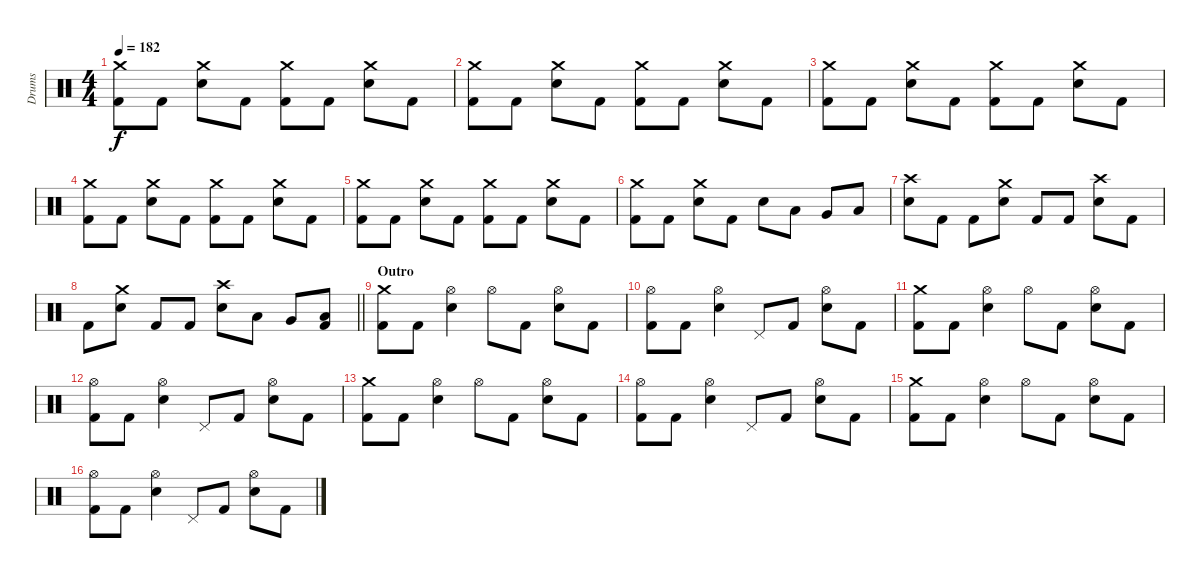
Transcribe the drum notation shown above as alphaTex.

\track ("Drums" "Drums") {instrument percussion}
\staff {score}
\articulation defaults
\ts (4 4)
\tempo 182
\clef neutral
\ks c
("Crash medium (hit)" "Kick (hit) 2").8{dy f} "Kick (hit) 2".8 ("Crash medium (hit)" "Electric Snare (hit)").8 "Kick (hit) 2".8 ("Crash medium (hit)" "Kick (hit) 2").8 "Kick (hit) 2".8 ("Crash medium (hit)" "Electric Snare (hit)").8 "Kick (hit) 2".8 |
("Crash medium (hit)" "Kick (hit) 2").8 "Kick (hit) 2".8 ("Crash medium (hit)" "Electric Snare (hit)").8 "Kick (hit) 2".8 ("Crash medium (hit)" "Kick (hit) 2").8 "Kick (hit) 2".8 ("Crash medium (hit)" "Electric Snare (hit)").8 "Kick (hit) 2".8 |
("Crash medium (hit)" "Kick (hit) 2").8 "Kick (hit) 2".8 ("Crash medium (hit)" "Electric Snare (hit)").8 "Kick (hit) 2".8 ("Crash medium (hit)" "Kick (hit) 2").8 "Kick (hit) 2".8 ("Crash medium (hit)" "Electric Snare (hit)").8 "Kick (hit) 2".8 |
("Crash medium (hit)" "Kick (hit) 2").8 "Kick (hit) 2".8 ("Crash medium (hit)" "Electric Snare (hit)").8 "Kick (hit) 2".8 ("Crash medium (hit)" "Kick (hit) 2").8 "Kick (hit) 2".8 ("Crash medium (hit)" "Electric Snare (hit)").8 "Kick (hit) 2".8 |
("Crash medium (hit)" "Kick (hit) 2").8 "Kick (hit) 2".8 ("Crash medium (hit)" "Electric Snare (hit)").8 "Kick (hit) 2".8 ("Crash medium (hit)" "Kick (hit) 2").8 "Kick (hit) 2".8 ("Crash medium (hit)" "Electric Snare (hit)").8 "Kick (hit) 2".8 |
("Crash medium (hit)" "Kick (hit) 2").8 "Kick (hit) 2".8 ("Crash medium (hit)" "Electric Snare (hit)").8 "Kick (hit) 2".8 "Electric Snare (hit)".8 "Low Tom (hit)".8 "Very Low Tom (hit)".8 "Low Floor Tom (hit)".8 |
("Crash high (hit)" "Electric Snare (hit)").8 "Kick (hit) 2".8 "Kick (hit) 2".8 ("Crash medium (hit)" "Electric Snare (hit)").8 "Kick (hit) 2".8 "Kick (hit) 2".8 ("Crash high (hit)" "Electric Snare (hit)").8 "Kick (hit) 2".8 |
\barLineRight lightlight "Kick (hit) 2".8
("Crash medium (hit)" "Electric Snare (hit)").8 "Kick (hit) 2".8 "Kick (hit) 2".8 ("Crash high (hit)" "Electric Snare (hit)").8 "Low Tom (hit)".8 "Very Low Tom (hit)".8 ("Low Floor Tom (hit)" "Kick (hit) 2").8 |
\section ("" "Outro")
("Crash medium (hit)" "Kick (hit) 2").8 "Kick (hit) 2".8 ("Hi-Hat (open)" "Electric Snare (hit)").4 "Hi-Hat (open)".8 "Kick (hit) 2".8 ("Hi-Hat (open)" "Electric Snare (hit)").8 "Kick (hit) 2".8 |
("Hi-Hat (open)" "Kick (hit) 2").8 "Kick (hit) 2".8 ("Hi-Hat (open)" "Electric Snare (hit)").4 "Pedal Hi-Hat (hit)".8 "Kick (hit) 2".8 ("Hi-Hat (open)" "Electric Snare (hit)").8 "Kick (hit) 2".8 |
("Crash medium (hit)" "Kick (hit) 2").8 "Kick (hit) 2".8 ("Hi-Hat (open)" "Electric Snare (hit)").4 "Hi-Hat (open)".8 "Kick (hit) 2".8 ("Hi-Hat (open)" "Electric Snare (hit)").8 "Kick (hit) 2".8 |
("Hi-Hat (open)" "Kick (hit) 2").8 "Kick (hit) 2".8 ("Hi-Hat (open)" "Electric Snare (hit)").4 "Pedal Hi-Hat (hit)".8 "Kick (hit) 2".8 ("Hi-Hat (open)" "Electric Snare (hit)").8 "Kick (hit) 2".8 |
("Crash medium (hit)" "Kick (hit) 2").8 "Kick (hit) 2".8 ("Hi-Hat (open)" "Electric Snare (hit)").4 "Hi-Hat (open)".8 "Kick (hit) 2".8 ("Hi-Hat (open)" "Electric Snare (hit)").8 "Kick (hit) 2".8 |
("Hi-Hat (open)" "Kick (hit) 2").8 "Kick (hit) 2".8 ("Hi-Hat (open)" "Electric Snare (hit)").4 "Pedal Hi-Hat (hit)".8 "Kick (hit) 2".8 ("Hi-Hat (open)" "Electric Snare (hit)").8 "Kick (hit) 2".8 |
("Crash medium (hit)" "Kick (hit) 2").8 "Kick (hit) 2".8 ("Hi-Hat (open)" "Electric Snare (hit)").4 "Hi-Hat (open)".8 "Kick (hit) 2".8 ("Hi-Hat (open)" "Electric Snare (hit)").8 "Kick (hit) 2".8 |
("Hi-Hat (open)" "Kick (hit) 2").8 "Kick (hit) 2".8 ("Hi-Hat (open)" "Electric Snare (hit)").4 "Pedal Hi-Hat (hit)".8 "Kick (hit) 2".8 ("Hi-Hat (open)" "Electric Snare (hit)").8 "Kick (hit) 2".8
